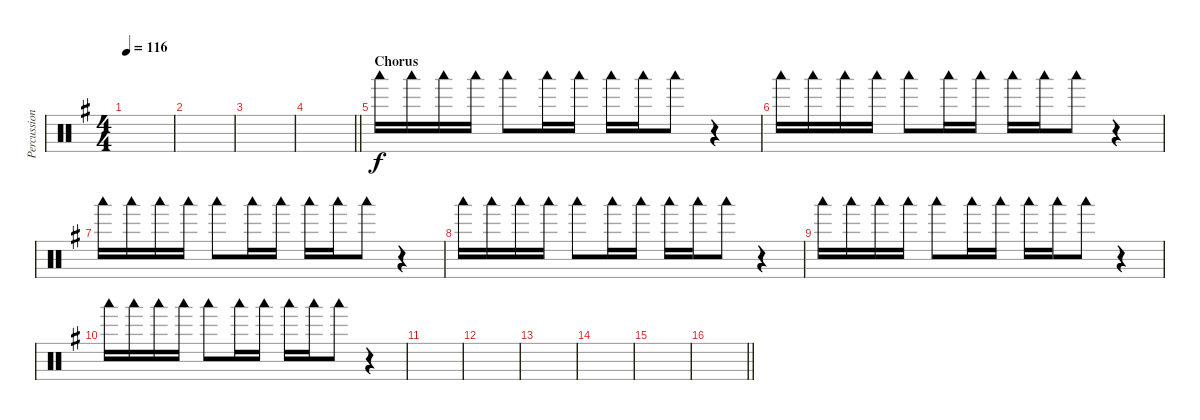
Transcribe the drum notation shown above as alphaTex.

\track ("Percussion" "Percussion") {instrument percussion}
\staff {score}
\articulation defaults
\ts (4 4)
\tempo 116
\clef neutral
\ks g
|
|
|
\barLineRight lightlight
|
\section ("" "Chorus")
"Woodblock low (hit)".16 "Woodblock low (hit)".16 "Woodblock low (hit)".16 "Woodblock low (hit)".16 "Woodblock low (hit)".8 "Woodblock low (hit)".16 "Woodblock low (hit)".16 "Woodblock low (hit)".16 "Woodblock low (hit)".16 "Woodblock low (hit)".8 r.4 |
"Woodblock low (hit)".16 "Woodblock low (hit)".16 "Woodblock low (hit)".16 "Woodblock low (hit)".16 "Woodblock low (hit)".8 "Woodblock low (hit)".16 "Woodblock low (hit)".16 "Woodblock low (hit)".16 "Woodblock low (hit)".16 "Woodblock low (hit)".8 r.4 |
"Woodblock low (hit)".16 "Woodblock low (hit)".16 "Woodblock low (hit)".16 "Woodblock low (hit)".16 "Woodblock low (hit)".8 "Woodblock low (hit)".16 "Woodblock low (hit)".16 "Woodblock low (hit)".16 "Woodblock low (hit)".16 "Woodblock low (hit)".8 r.4 |
"Woodblock low (hit)".16 "Woodblock low (hit)".16 "Woodblock low (hit)".16 "Woodblock low (hit)".16 "Woodblock low (hit)".8 "Woodblock low (hit)".16 "Woodblock low (hit)".16 "Woodblock low (hit)".16 "Woodblock low (hit)".16 "Woodblock low (hit)".8 r.4 |
"Woodblock low (hit)".16 "Woodblock low (hit)".16 "Woodblock low (hit)".16 "Woodblock low (hit)".16 "Woodblock low (hit)".8 "Woodblock low (hit)".16 "Woodblock low (hit)".16 "Woodblock low (hit)".16 "Woodblock low (hit)".16 "Woodblock low (hit)".8 r.4 |
"Woodblock low (hit)".16 "Woodblock low (hit)".16 "Woodblock low (hit)".16 "Woodblock low (hit)".16 "Woodblock low (hit)".8 "Woodblock low (hit)".16 "Woodblock low (hit)".16 "Woodblock low (hit)".16 "Woodblock low (hit)".16 "Woodblock low (hit)".8 r.4 |
|
|
|
|
|
\barLineRight lightlight
